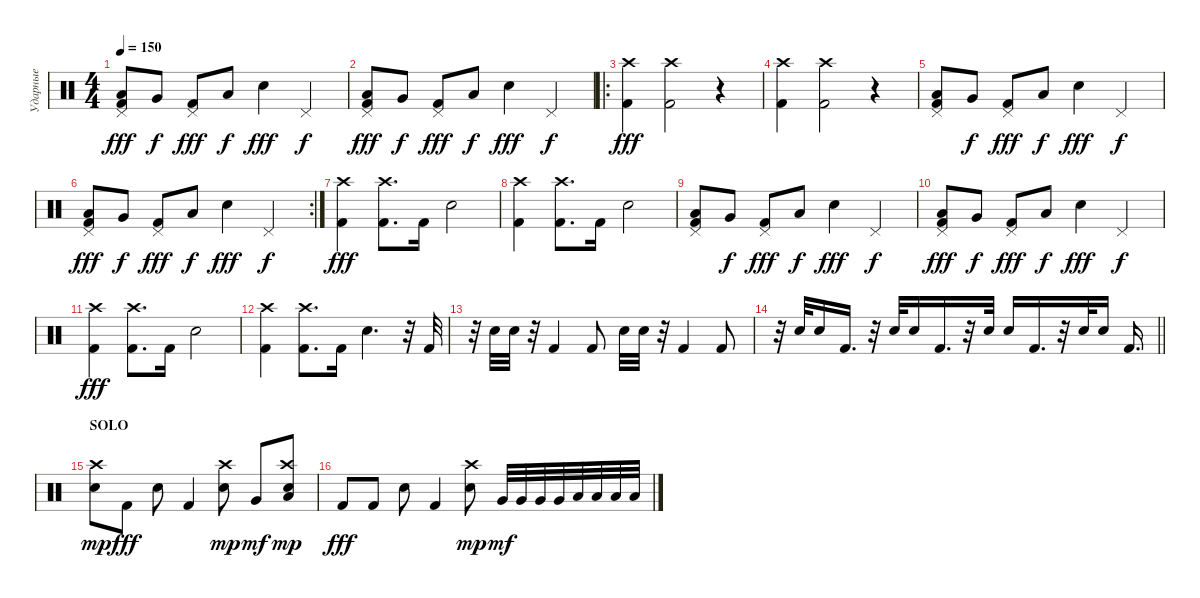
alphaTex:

\track ("Ударные" "Ударные") {instrument percussion}
\staff {score}
\articulation defaults
\ts (4 4)
\tempo 150
\clef neutral
\ks c
("Pedal Hi-Hat (hit)" "Kick (hit) 2" "Low Tom (hit)").8{dy fff} "Very Low Tom (hit)".8{dy f} ("Pedal Hi-Hat (hit)" "Kick (hit) 2").8{dy fff} "Low Floor Tom (hit)".8{dy f} "Electric Snare (hit)".4{dy fff} "Pedal Hi-Hat (hit)".4{dy f} |
("Pedal Hi-Hat (hit)" "Kick (hit) 2" "Low Tom (hit)").8{dy fff} "Very Low Tom (hit)".8{dy f} ("Pedal Hi-Hat (hit)" "Kick (hit) 2").8{dy fff} "Low Floor Tom (hit)".8{dy f} "Electric Snare (hit)".4{dy fff} "Pedal Hi-Hat (hit)".4{dy f} |
\ro
("Crash high (hit)" "Kick (hit) 2").4{dy fff} ("Crash high (hit)" "Kick (hit) 2").2 r.4 |
("Crash high (hit)" "Kick (hit) 2").4 ("Crash high (hit)" "Kick (hit) 2").2 r.4 |
("Pedal Hi-Hat (hit)" "Kick (hit) 2" "Low Tom (hit)").8 "Very Low Tom (hit)".8{dy f} ("Pedal Hi-Hat (hit)" "Kick (hit) 2").8{dy fff} "Low Floor Tom (hit)".8{dy f} "Electric Snare (hit)".4{dy fff} "Pedal Hi-Hat (hit)".4{dy f} |
\rc 2
("Pedal Hi-Hat (hit)" "Kick (hit) 2" "Low Tom (hit)").8{dy fff} "Very Low Tom (hit)".8{dy f} ("Pedal Hi-Hat (hit)" "Kick (hit) 2").8{dy fff} "Low Floor Tom (hit)".8{dy f} "Electric Snare (hit)".4{dy fff} "Pedal Hi-Hat (hit)".4{dy f} |
("Crash high (hit)" "Kick (hit) 2").4{dy fff} ("Crash high (hit)" "Kick (hit) 2").8{d} "Kick (hit) 2".16 "Electric Snare (hit)".2 |
("Crash high (hit)" "Kick (hit) 2").4 ("Crash high (hit)" "Kick (hit) 2").8{d} "Kick (hit) 2".16 "Electric Snare (hit)".2 |
("Pedal Hi-Hat (hit)" "Kick (hit) 2" "Low Tom (hit)").8 "Very Low Tom (hit)".8{dy f} ("Pedal Hi-Hat (hit)" "Kick (hit) 2").8{dy fff} "Low Floor Tom (hit)".8{dy f} "Electric Snare (hit)".4{dy fff} "Pedal Hi-Hat (hit)".4{dy f} |
("Pedal Hi-Hat (hit)" "Kick (hit) 2" "Low Tom (hit)").8{dy fff} "Very Low Tom (hit)".8{dy f} ("Pedal Hi-Hat (hit)" "Kick (hit) 2").8{dy fff} "Low Floor Tom (hit)".8{dy f} "Electric Snare (hit)".4{dy fff} "Pedal Hi-Hat (hit)".4{dy f} |
("Crash high (hit)" "Kick (hit) 2").4{dy fff} ("Crash high (hit)" "Kick (hit) 2").8{d} "Kick (hit) 2".16 "Electric Snare (hit)".2 |
("Crash high (hit)" "Kick (hit) 2").4 ("Crash high (hit)" "Kick (hit) 2").8{d} "Kick (hit) 2".16 "Electric Snare (hit)".4{d} r.32 "Kick (hit) 2".32 |
r.32 "Electric Snare (hit)".32 "Electric Snare (hit)".32 r.32 "Kick (hit) 2".4 "Kick (hit) 2".8 "Electric Snare (hit)".32 "Electric Snare (hit)".32 r.32 "Kick (hit) 2".4 "Kick (hit) 2".8 |
\barLineRight lightlight
r.32 "Electric Snare (hit)".32 "Electric Snare (hit)".16 "Kick (hit) 2".16{d} r.32 "Electric Snare (hit)".32 "Electric Snare (hit)".16 "Kick (hit) 2".16{d} r.32 "Electric Snare (hit)".32 "Electric Snare (hit)".16 "Kick (hit) 2".16{d} r.32 "Electric Snare (hit)".32 "Electric Snare (hit)".16 "Kick (hit) 2".16{d} |
\section ("" "SOLO")
("Snare (hit) 2" "Crash high (hit)").8{dy mp} "Kick (hit) 2".8{dy fff} "Snare (hit) 2".8 "Kick (hit) 2".4 ("Snare (hit) 2" "Crash high (hit)").8{dy mp} "Very Low Tom (hit)".8{dy mf} ("Snare (hit) 2" "Low Floor Tom (hit)" "Crash high (hit)").8{dy mp} |
"Kick (hit) 2".8{dy fff} "Kick (hit) 2".8 "Snare (hit) 2".8 "Kick (hit) 2".4 ("Snare (hit) 2" "Crash high (hit)").8{dy mp} "Very Low Tom (hit)".32{dy mf} "Very Low Tom (hit)".32 "Very Low Tom (hit)".32 "Very Low Tom (hit)".32 "Low Floor Tom (hit)".32 "Low Floor Tom (hit)".32 "Low Floor Tom (hit)".32 "Low Floor Tom (hit)".32
